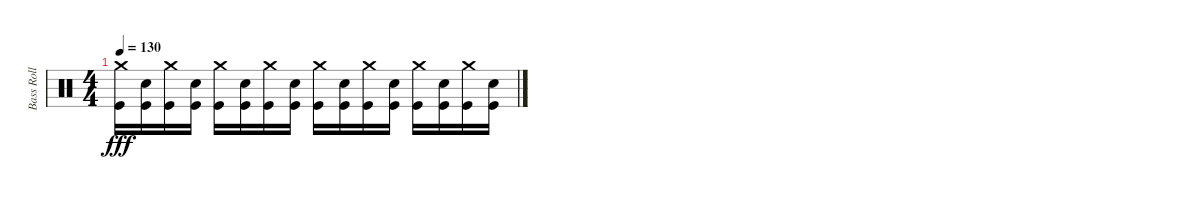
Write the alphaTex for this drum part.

\track ("Bass Roll" "Bass Roll") {instrument percussion}
\staff {score}
\articulation defaults
\ts (4 4)
\tempo 130
\clef neutral
\ks c
("Kick (hit)" "Crash medium (hit)").16{dy fff} ("Kick (hit)" "Snare (hit) 2").16 ("Kick (hit)" "Crash medium (hit)").16 ("Kick (hit)" "Snare (hit) 2").16 ("Kick (hit)" "Crash medium (hit)").16 ("Kick (hit)" "Snare (hit) 2").16 ("Kick (hit)" "Crash medium (hit)").16 ("Kick (hit)" "Snare (hit) 2").16 ("Kick (hit)" "Crash medium (hit)").16 ("Kick (hit)" "Snare (hit) 2").16 ("Kick (hit)" "Crash medium (hit)").16 ("Kick (hit)" "Snare (hit) 2").16 ("Kick (hit)" "Crash medium (hit)").16 ("Kick (hit)" "Snare (hit) 2").16 ("Kick (hit)" "Crash medium (hit)").16 ("Kick (hit)" "Snare (hit) 2").16
